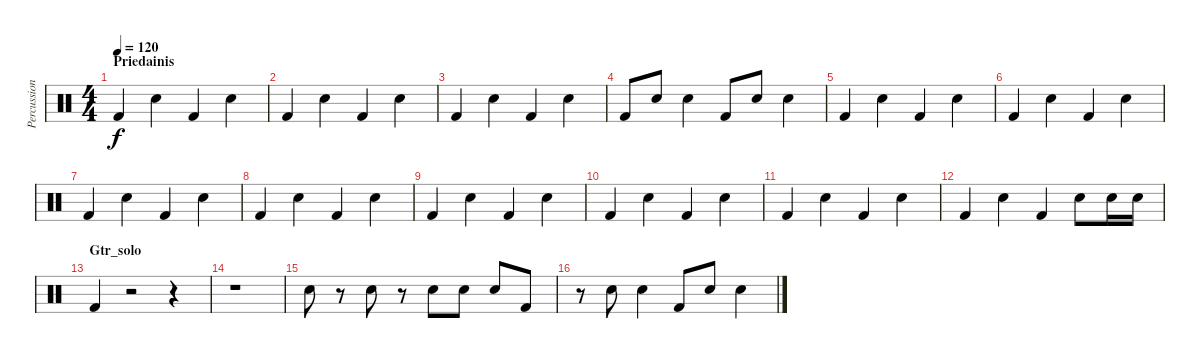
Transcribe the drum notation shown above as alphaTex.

\track ("Percussion" "Percussion") {instrument percussion}
\staff {score}
\articulation defaults
\ts (4 4)
\section ("" "Priedainis")
\tempo 120
\clef neutral
\ks c "Kick (hit) 2".4{dy f} "Snare (hit) 2".4 "Kick (hit) 2".4 "Snare (hit) 2".4
|
"Kick (hit) 2".4 "Snare (hit) 2".4 "Kick (hit) 2".4 "Snare (hit) 2".4 |
"Kick (hit) 2".4 "Snare (hit) 2".4 "Kick (hit) 2".4 "Snare (hit) 2".4 |
"Kick (hit) 2".8 "Snare (hit) 2".8 "Snare (hit) 2".4 "Kick (hit) 2".8 "Snare (hit) 2".8 "Snare (hit) 2".4 |
"Kick (hit) 2".4 "Snare (hit) 2".4 "Kick (hit) 2".4 "Snare (hit) 2".4 |
"Kick (hit) 2".4 "Snare (hit) 2".4 "Kick (hit) 2".4 "Snare (hit) 2".4 |
"Kick (hit) 2".4 "Snare (hit) 2".4 "Kick (hit) 2".4 "Snare (hit) 2".4 |
"Kick (hit) 2".4 "Snare (hit) 2".4 "Kick (hit) 2".4 "Snare (hit) 2".4 |
"Kick (hit) 2".4 "Snare (hit) 2".4 "Kick (hit) 2".4 "Snare (hit) 2".4 |
"Kick (hit) 2".4 "Snare (hit) 2".4 "Kick (hit) 2".4 "Snare (hit) 2".4 |
"Kick (hit) 2".4 "Snare (hit) 2".4 "Kick (hit) 2".4 "Snare (hit) 2".4 |
"Kick (hit) 2".4 "Snare (hit) 2".4 "Kick (hit) 2".4 "Snare (hit) 2".8 "Snare (hit) 2".16 "Snare (hit) 2".16 |
\section ("" "Gtr_solo")
"Kick (hit) 2".4 r.2 r.4 |
r.1 |
"Snare (hit) 2".8 r.8 "Snare (hit) 2".8 r.8 "Snare (hit) 2".8 "Snare (hit) 2".8 "Snare (hit) 2".8 "Kick (hit) 2".8 |
r.8 "Snare (hit) 2".8 "Snare (hit) 2".4 "Kick (hit) 2".8 "Snare (hit) 2".8 "Snare (hit) 2".4
